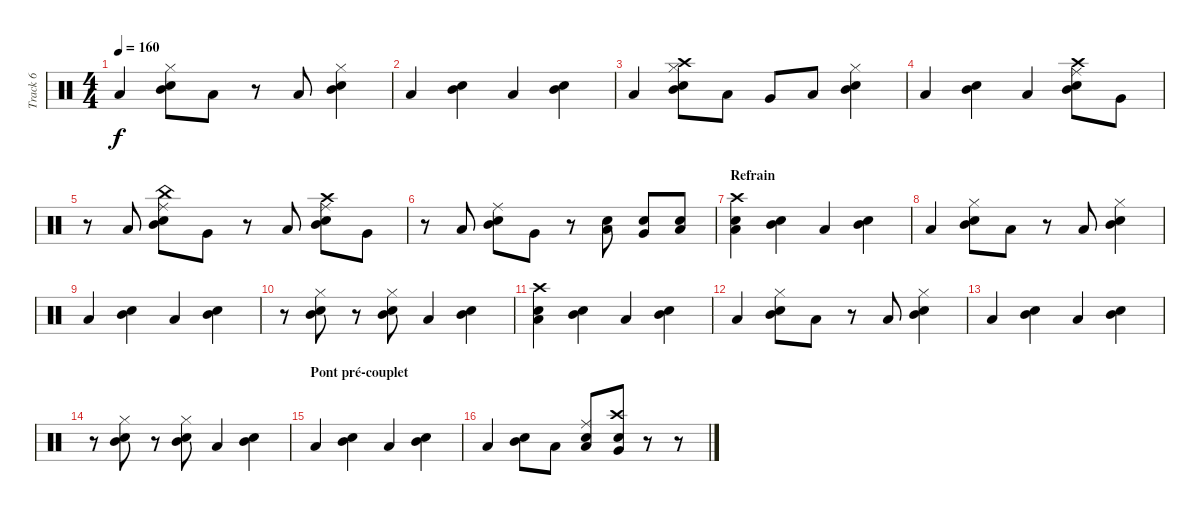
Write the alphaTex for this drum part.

\track ("Track 6" "Track 6") {instrument percussion}
\staff {score}
\articulation defaults
\ts (4 4)
\tempo 160
\clef neutral
\ks c "Low Tom (hit)".4{dy f}
("Mid Tom (hit)" "Hi-Hat (closed)" "Snare (hit) 2").8 "Low Tom (hit)".8 r.8 "Low Tom (hit)".8 ("Mid Tom (hit)" "Hi-Hat (closed)" "Snare (hit) 2").4 |
"Low Tom (hit)".4 ("Mid Tom (hit)" "Snare (hit) 2").4 "Low Tom (hit)".4 ("Mid Tom (hit)" "Snare (hit) 2").4 |
"Low Tom (hit)".4 ("Mid Tom (hit)" "Hi-Hat (closed)" "Snare (hit) 2" "Crash high (hit)").8 "Low Tom (hit)".8 "Very Low Tom (hit)".8 "Low Floor Tom (hit)".8 ("Mid Tom (hit)" "Hi-Hat (closed)" "Snare (hit) 2").4 |
"Low Tom (hit)".4 ("Mid Tom (hit)" "Snare (hit) 2").4 "Low Tom (hit)".4 ("Mid Tom (hit)" "Snare (hit) 2" "Ride (middle)" "Crash high (hit)").8 "Very Low Tom (hit)".8 |
r.8 "Low Tom (hit)".8 ("Mid Tom (hit)" "Snare (hit) 2" "Ride (middle)" "China (hit)").8 "Very Low Tom (hit)".8 r.8 "Low Tom (hit)".8 ("Mid Tom (hit)" "Snare (hit) 2" "Ride (middle)" "Crash high (hit)").8 "Very Low Tom (hit)".8 |
r.8 "Low Tom (hit)".8 ("Mid Tom (hit)" "Snare (hit) 2" "Ride (middle)").8 "Very Low Tom (hit)".8 r.8 ("Low Floor Tom (hit)" "Snare (hit) 2").8 ("Very Low Tom (hit)" "Snare (hit) 2").8 ("Low Tom (hit)" "Snare (hit) 2").8 |
\section ("" "Refrain")
("Low Tom (hit)" "Snare (hit) 2" "Crash high (hit)").4 ("Mid Tom (hit)" "Snare (hit) 2").4 "Low Tom (hit)".4 ("Mid Tom (hit)" "Snare (hit) 2").4 |
"Low Tom (hit)".4 ("Mid Tom (hit)" "Hi-Hat (closed)" "Snare (hit) 2").8 "Low Tom (hit)".8 r.8 "Low Tom (hit)".8 ("Mid Tom (hit)" "Hi-Hat (closed)" "Snare (hit) 2").4 |
"Low Tom (hit)".4 ("Mid Tom (hit)" "Snare (hit) 2").4 "Low Tom (hit)".4 ("Mid Tom (hit)" "Snare (hit) 2").4 |
r.8 ("Mid Tom (hit)" "Hi-Hat (closed)" "Snare (hit) 2").8 r.8 ("Mid Tom (hit)" "Hi-Hat (closed)" "Snare (hit) 2").8 "Low Tom (hit)".4 ("Mid Tom (hit)" "Snare (hit) 2").4 |
("Low Tom (hit)" "Snare (hit) 2" "Crash high (hit)").4 ("Mid Tom (hit)" "Snare (hit) 2").4 "Low Tom (hit)".4 ("Mid Tom (hit)" "Snare (hit) 2").4 |
"Low Tom (hit)".4 ("Mid Tom (hit)" "Hi-Hat (closed)" "Snare (hit) 2").8 "Low Tom (hit)".8 r.8 "Low Tom (hit)".8 ("Mid Tom (hit)" "Hi-Hat (closed)" "Snare (hit) 2").4 |
"Low Tom (hit)".4 ("Mid Tom (hit)" "Snare (hit) 2").4 "Low Tom (hit)".4 ("Mid Tom (hit)" "Snare (hit) 2").4 |
r.8 ("Mid Tom (hit)" "Hi-Hat (closed)" "Snare (hit) 2").8 r.8 ("Mid Tom (hit)" "Hi-Hat (closed)" "Snare (hit) 2").8 "Low Tom (hit)".4 ("Mid Tom (hit)" "Snare (hit) 2").4 |
\section ("" "Pont pré-couplet")
"Low Tom (hit)".4 ("Mid Tom (hit)" "Snare (hit) 2").4 "Low Tom (hit)".4 ("Mid Tom (hit)" "Snare (hit) 2").4 |
"Low Tom (hit)".4 ("Mid Tom (hit)" "Snare (hit) 2").8 "Low Floor Tom (hit)".8 ("Low Tom (hit)" "Ride (middle)" "Electric Snare (hit)").8 ("Very Low Tom (hit)" "Crash high (hit)" "Snare (hit) 2").8 r.8 r.8
